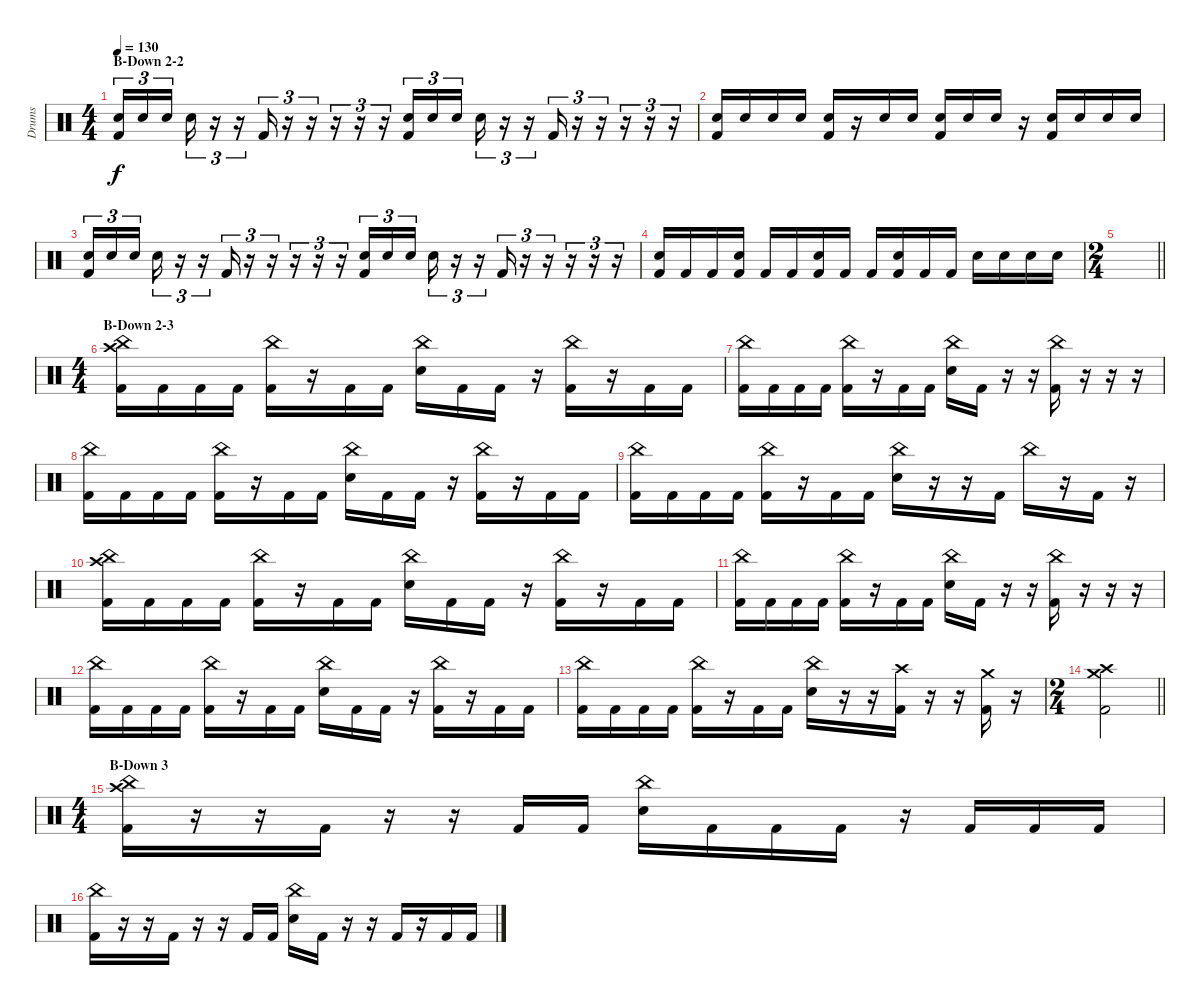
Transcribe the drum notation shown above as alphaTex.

\track ("Drums" "Drums") {instrument percussion}
\staff {score}
\articulation defaults
\ts (4 4)
\section ("" "B-Down 2-2")
\tempo 130
\clef neutral
\ks c
("Electric Snare (hit)" "Kick (hit) 2").16{tu (3 2) dy f} "Electric Snare (hit)".16{tu (3 2)} "Electric Snare (hit)".16{tu (3 2) beam splitsecondary} "Electric Snare (hit)".16{tu (3 2)} r.16{tu (3 2)} r.16{tu (3 2)} "Kick (hit) 2".16{tu (3 2)} r.16{tu (3 2)} r.16{tu (3 2)} r.16{tu (3 2)} r.16{tu (3 2)} r.16{tu (3 2)} ("Electric Snare (hit)" "Kick (hit) 2").16{tu (3 2)} "Electric Snare (hit)".16{tu (3 2)} "Electric Snare (hit)".16{tu (3 2) beam splitsecondary} "Electric Snare (hit)".16{tu (3 2)} r.16{tu (3 2)} r.16{tu (3 2)} "Kick (hit) 2".16{tu (3 2)} r.16{tu (3 2)} r.16{tu (3 2)} r.16{tu (3 2)} r.16{tu (3 2)} r.16{tu (3 2)} |
("Electric Snare (hit)" "Kick (hit) 2").16 "Electric Snare (hit)".16 "Electric Snare (hit)".16 "Electric Snare (hit)".16 ("Electric Snare (hit)" "Kick (hit) 2").16 r.16 "Electric Snare (hit)".16 "Electric Snare (hit)".16 ("Electric Snare (hit)" "Kick (hit) 2").16 "Electric Snare (hit)".16 "Electric Snare (hit)".16 r.16 ("Electric Snare (hit)" "Kick (hit) 2").16 "Electric Snare (hit)".16 "Electric Snare (hit)".16 "Electric Snare (hit)".16 |
("Electric Snare (hit)" "Kick (hit) 2").16{tu (3 2)} "Electric Snare (hit)".16{tu (3 2)} "Electric Snare (hit)".16{tu (3 2) beam splitsecondary} "Electric Snare (hit)".16{tu (3 2)} r.16{tu (3 2)} r.16{tu (3 2)} "Kick (hit) 2".16{tu (3 2)} r.16{tu (3 2)} r.16{tu (3 2)} r.16{tu (3 2)} r.16{tu (3 2)} r.16{tu (3 2)} ("Electric Snare (hit)" "Kick (hit) 2").16{tu (3 2)} "Electric Snare (hit)".16{tu (3 2)} "Electric Snare (hit)".16{tu (3 2) beam splitsecondary} "Electric Snare (hit)".16{tu (3 2)} r.16{tu (3 2)} r.16{tu (3 2)} "Kick (hit) 2".16{tu (3 2)} r.16{tu (3 2)} r.16{tu (3 2)} r.16{tu (3 2)} r.16{tu (3 2)} r.16{tu (3 2)} |
("Electric Snare (hit)" "Kick (hit) 2").16 "Kick (hit) 2".16 "Kick (hit) 2".16 ("Electric Snare (hit)" "Kick (hit) 2").16 "Kick (hit) 2".16 "Kick (hit) 2".16 ("Electric Snare (hit)" "Kick (hit) 2").16 "Kick (hit) 2".16 "Kick (hit) 2".16 ("Electric Snare (hit)" "Kick (hit) 2").16 "Kick (hit) 2".16 "Kick (hit) 2".16 "Electric Snare (hit)".16 "Electric Snare (hit)".16 "Electric Snare (hit)".16 "Electric Snare (hit)".16 |
\ts (2 4)
\barLineRight lightlight
|
\ts (4 4)
\section ("" "B-Down 2-3")
("China (hit)" "Crash high (hit)" "Kick (hit) 2").16 "Kick (hit) 2".16 "Kick (hit) 2".16 "Kick (hit) 2".16 ("China (hit)" "Kick (hit) 2").16 r.16 "Kick (hit) 2".16 "Kick (hit) 2".16 ("China (hit)" "Electric Snare (hit)").16 "Kick (hit) 2".16 "Kick (hit) 2".16 r.16 ("China (hit)" "Kick (hit) 2").16 r.16 "Kick (hit) 2".16 "Kick (hit) 2".16 |
("China (hit)" "Kick (hit) 2").16 "Kick (hit) 2".16 "Kick (hit) 2".16 "Kick (hit) 2".16 ("China (hit)" "Kick (hit) 2").16 r.16 "Kick (hit) 2".16 "Kick (hit) 2".16 ("China (hit)" "Electric Snare (hit)").16 "Kick (hit) 2".16 r.16 r.16 ("China (hit)" "Kick (hit) 2").16 r.16 r.16 r.16 |
("China (hit)" "Kick (hit) 2").16 "Kick (hit) 2".16 "Kick (hit) 2".16 "Kick (hit) 2".16 ("China (hit)" "Kick (hit) 2").16 r.16 "Kick (hit) 2".16 "Kick (hit) 2".16 ("China (hit)" "Electric Snare (hit)").16 "Kick (hit) 2".16 "Kick (hit) 2".16 r.16 ("China (hit)" "Kick (hit) 2").16 r.16 "Kick (hit) 2".16 "Kick (hit) 2".16 |
("China (hit)" "Kick (hit) 2").16 "Kick (hit) 2".16 "Kick (hit) 2".16 "Kick (hit) 2".16 ("China (hit)" "Kick (hit) 2").16 r.16 "Kick (hit) 2".16 "Kick (hit) 2".16 ("China (hit)" "Electric Snare (hit)").16 r.16 r.16 "Kick (hit) 2".16 "China (hit)".16 r.16 "Kick (hit) 2".16 r.16 |
("China (hit)" "Crash high (hit)" "Kick (hit) 2").16 "Kick (hit) 2".16 "Kick (hit) 2".16 "Kick (hit) 2".16 ("China (hit)" "Kick (hit) 2").16 r.16 "Kick (hit) 2".16 "Kick (hit) 2".16 ("China (hit)" "Electric Snare (hit)").16 "Kick (hit) 2".16 "Kick (hit) 2".16 r.16 ("China (hit)" "Kick (hit) 2").16 r.16 "Kick (hit) 2".16 "Kick (hit) 2".16 |
("China (hit)" "Kick (hit) 2").16 "Kick (hit) 2".16 "Kick (hit) 2".16 "Kick (hit) 2".16 ("China (hit)" "Kick (hit) 2").16 r.16 "Kick (hit) 2".16 "Kick (hit) 2".16 ("China (hit)" "Electric Snare (hit)").16 "Kick (hit) 2".16 r.16 r.16 ("China (hit)" "Kick (hit) 2").16 r.16 r.16 r.16 |
("China (hit)" "Kick (hit) 2").16 "Kick (hit) 2".16 "Kick (hit) 2".16 "Kick (hit) 2".16 ("China (hit)" "Kick (hit) 2").16 r.16 "Kick (hit) 2".16 "Kick (hit) 2".16 ("China (hit)" "Electric Snare (hit)").16 "Kick (hit) 2".16 "Kick (hit) 2".16 r.16 ("China (hit)" "Kick (hit) 2").16 r.16 "Kick (hit) 2".16 "Kick (hit) 2".16 |
("China (hit)" "Kick (hit) 2").16 "Kick (hit) 2".16 "Kick (hit) 2".16 "Kick (hit) 2".16 ("China (hit)" "Kick (hit) 2").16 r.16 "Kick (hit) 2".16 "Kick (hit) 2".16 ("China (hit)" "Electric Snare (hit)").16 r.16 r.16 ("Crash high (hit)" "Kick (hit) 2").16 r.16 r.16 ("Crash medium (hit)" "Kick (hit) 2").16 r.16 |
\ts (2 4)
\barLineRight lightlight
("Crash medium (hit)" "Crash high (hit)" "Kick (hit) 2").2 |
\ts (4 4)
\section ("" "B-Down 3")
("China (hit)" "Crash high (hit)" "Kick (hit) 2").16 r.16 r.16 "Kick (hit) 2".16 r.16 r.16 "Kick (hit) 2".16 "Kick (hit) 2".16 ("China (hit)" "Electric Snare (hit)").16 "Kick (hit) 2".16 "Kick (hit) 2".16 "Kick (hit) 2".16 r.16 "Kick (hit) 2".16 "Kick (hit) 2".16 "Kick (hit) 2".16 |
("China (hit)" "Kick (hit) 2").16 r.16 r.16 "Kick (hit) 2".16 r.16 r.16 "Kick (hit) 2".16 "Kick (hit) 2".16 ("China (hit)" "Electric Snare (hit)").16 "Kick (hit) 2".16 r.16 r.16 "Kick (hit) 2".16 r.16 "Kick (hit) 2".16 "Kick (hit) 2".16
